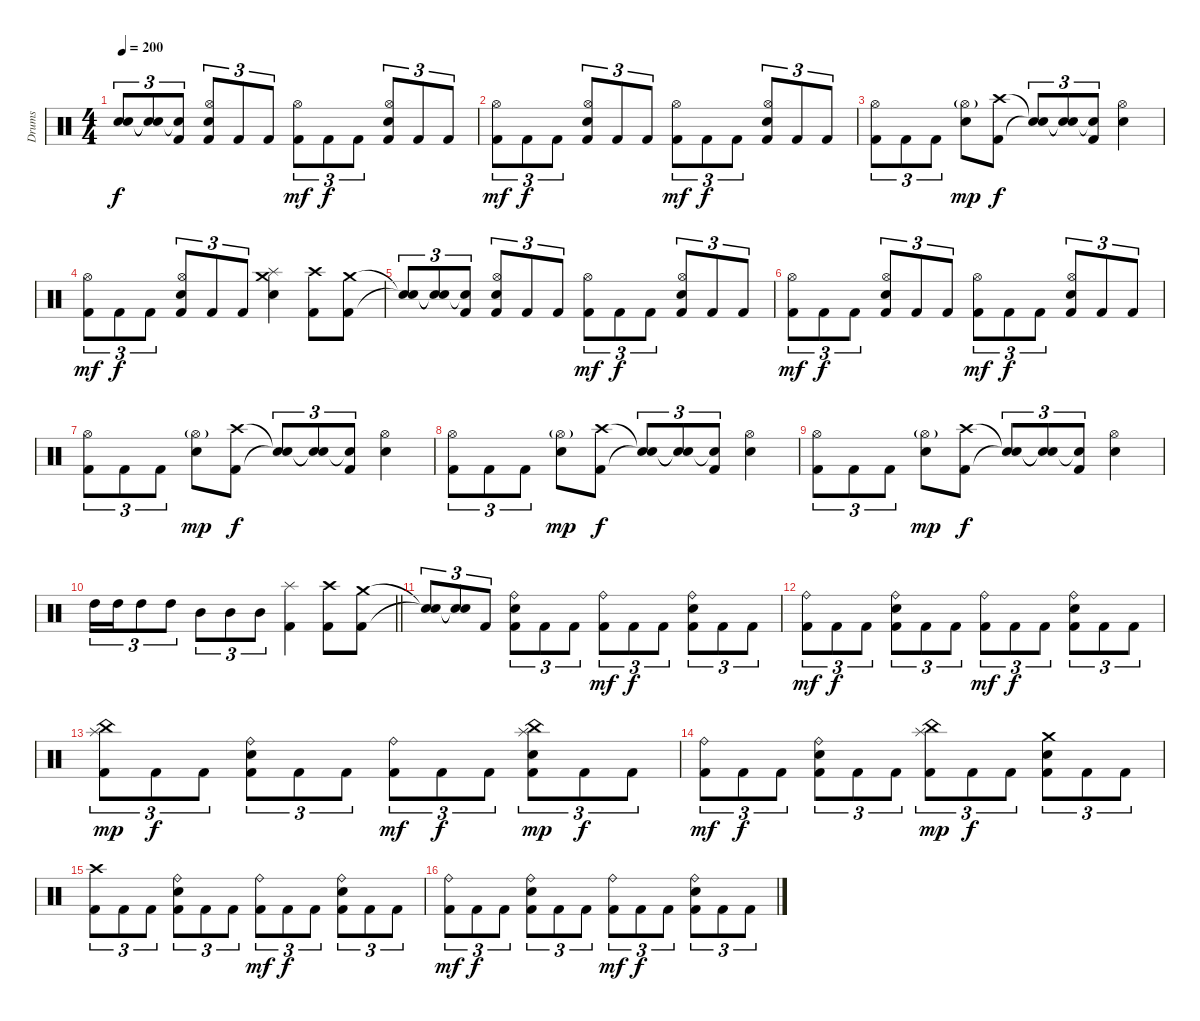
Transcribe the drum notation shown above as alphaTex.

\track ("Drums" "Drums") {instrument percussion}
\staff {score}
\articulation defaults
\ts (4 4)
\tempo 200
\clef neutral
\ks c
("Snare (hit)"{t} "Snare (hit)"{t}).8{tu (3 2) dy f} ("Snare (hit)"{t} "Snare (hit)"{t}).8{tu (3 2)} ("Snare (hit)"{t} "Kick (hit) 2").8{tu (3 2)} ("Hi-Hat (open)" "Electric Snare (hit)" "Kick (hit) 2").8{tu (3 2)} "Kick (hit) 2".8{tu (3 2)} "Kick (hit) 2".8{tu (3 2)} ("Hi-Hat (open)" "Kick (hit) 2").8{tu (3 2) dy mf} "Kick (hit) 2".8{tu (3 2) dy f} "Kick (hit) 2".8{tu (3 2)} ("Hi-Hat (open)" "Electric Snare (hit)" "Kick (hit) 2").8{tu (3 2)} "Kick (hit) 2".8{tu (3 2)} "Kick (hit) 2".8{tu (3 2)} |
("Hi-Hat (open)" "Kick (hit) 2").8{tu (3 2) dy mf} "Kick (hit) 2".8{tu (3 2) dy f} "Kick (hit) 2".8{tu (3 2)} ("Hi-Hat (open)" "Electric Snare (hit)" "Kick (hit) 2").8{tu (3 2)} "Kick (hit) 2".8{tu (3 2)} "Kick (hit) 2".8{tu (3 2)} ("Hi-Hat (open)" "Kick (hit) 2").8{tu (3 2) dy mf} "Kick (hit) 2".8{tu (3 2) dy f} "Kick (hit) 2".8{tu (3 2)} ("Hi-Hat (open)" "Electric Snare (hit)" "Kick (hit) 2").8{tu (3 2)} "Kick (hit) 2".8{tu (3 2)} "Kick (hit) 2".8{tu (3 2)} |
("Hi-Hat (open)" "Kick (hit) 2").8{tu (3 2)} "Kick (hit) 2".8{tu (3 2)} "Kick (hit) 2".8{tu (3 2)} ("Hi-Hat (open)"{g} "Electric Snare (hit)").8{dy mp} ("Crash high (hit)" "Kick (hit) 2").8{dy f} ("Snare (hit)"{t} "Snare (hit)"{t}).8{tu (3 2)} ("Snare (hit)"{t} "Snare (hit)"{t}).8{tu (3 2)} ("Snare (hit)"{t} "Kick (hit) 2").8{tu (3 2)} ("Hi-Hat (open)" "Electric Snare (hit)").4 |
("Hi-Hat (open)" "Kick (hit) 2").8{tu (3 2) dy mf} "Kick (hit) 2".8{tu (3 2) dy f} "Kick (hit) 2".8{tu (3 2)} ("Hi-Hat (open)" "Electric Snare (hit)" "Kick (hit) 2").8{tu (3 2)} "Kick (hit) 2".8{tu (3 2)} "Kick (hit) 2".8{tu (3 2)} ("Splash (hit)" "Crash medium (hit)" "Electric Snare (hit)").4 ("Crash high (hit)" "Kick (hit) 2").8 ("Crash medium (hit)" "Kick (hit) 2").8 |
("Snare (hit)"{t} "Snare (hit)"{t}).8{tu (3 2)} ("Snare (hit)"{t} "Snare (hit)"{t}).8{tu (3 2)} ("Snare (hit)"{t} "Kick (hit) 2").8{tu (3 2)} ("Hi-Hat (open)" "Electric Snare (hit)" "Kick (hit) 2").8{tu (3 2)} "Kick (hit) 2".8{tu (3 2)} "Kick (hit) 2".8{tu (3 2)} ("Hi-Hat (open)" "Kick (hit) 2").8{tu (3 2) dy mf} "Kick (hit) 2".8{tu (3 2) dy f} "Kick (hit) 2".8{tu (3 2)} ("Hi-Hat (open)" "Electric Snare (hit)" "Kick (hit) 2").8{tu (3 2)} "Kick (hit) 2".8{tu (3 2)} "Kick (hit) 2".8{tu (3 2)} |
("Hi-Hat (open)" "Kick (hit) 2").8{tu (3 2) dy mf} "Kick (hit) 2".8{tu (3 2) dy f} "Kick (hit) 2".8{tu (3 2)} ("Hi-Hat (open)" "Electric Snare (hit)" "Kick (hit) 2").8{tu (3 2)} "Kick (hit) 2".8{tu (3 2)} "Kick (hit) 2".8{tu (3 2)} ("Hi-Hat (open)" "Kick (hit) 2").8{tu (3 2) dy mf} "Kick (hit) 2".8{tu (3 2) dy f} "Kick (hit) 2".8{tu (3 2)} ("Hi-Hat (open)" "Electric Snare (hit)" "Kick (hit) 2").8{tu (3 2)} "Kick (hit) 2".8{tu (3 2)} "Kick (hit) 2".8{tu (3 2)} |
("Hi-Hat (open)" "Kick (hit) 2").8{tu (3 2)} "Kick (hit) 2".8{tu (3 2)} "Kick (hit) 2".8{tu (3 2)} ("Hi-Hat (open)"{g} "Electric Snare (hit)").8{dy mp} ("Crash high (hit)" "Kick (hit) 2").8{dy f} ("Snare (hit)"{t} "Snare (hit)"{t}).8{tu (3 2)} ("Snare (hit)"{t} "Snare (hit)"{t}).8{tu (3 2)} ("Snare (hit)"{t} "Kick (hit) 2").8{tu (3 2)} ("Hi-Hat (open)" "Electric Snare (hit)").4 |
("Hi-Hat (open)" "Kick (hit) 2").8{tu (3 2)} "Kick (hit) 2".8{tu (3 2)} "Kick (hit) 2".8{tu (3 2)} ("Hi-Hat (open)"{g} "Electric Snare (hit)").8{dy mp} ("Crash high (hit)" "Kick (hit) 2").8{dy f} ("Snare (hit)"{t} "Snare (hit)"{t}).8{tu (3 2)} ("Snare (hit)"{t} "Snare (hit)"{t}).8{tu (3 2)} ("Snare (hit)"{t} "Kick (hit) 2").8{tu (3 2)} ("Hi-Hat (open)" "Electric Snare (hit)").4 |
("Hi-Hat (open)" "Kick (hit) 2").8{tu (3 2)} "Kick (hit) 2".8{tu (3 2)} "Kick (hit) 2".8{tu (3 2)} ("Hi-Hat (open)"{g} "Electric Snare (hit)").8{dy mp} ("Crash high (hit)" "Kick (hit) 2").8{dy f} ("Snare (hit)"{t} "Snare (hit)"{t}).8{tu (3 2)} ("Snare (hit)"{t} "Snare (hit)"{t}).8{tu (3 2)} ("Snare (hit)"{t} "Kick (hit) 2").8{tu (3 2)} ("Hi-Hat (open)" "Electric Snare (hit)").4 |
\barLineRight lightlight "High Tom (hit)".16{tu (3 2)} "High Tom (hit)".16{tu (3 2)} "High Tom (hit)".8{tu (3 2)} "High Tom (hit)".8{tu (3 2)} "Mid Tom (hit)".8{tu (3 2)} "Mid Tom (hit)".8{tu (3 2)} "Mid Tom (hit)".8{tu (3 2)}
("Splash (hit)" "Kick (hit) 2").4 ("Crash high (hit)" "Kick (hit) 2").8 ("Crash medium (hit)" "Kick (hit) 2").8 |
("Snare (hit)"{t} "Snare (hit)"{t}).8{tu (3 2)} ("Snare (hit)"{t} "Snare (hit)"{t}).8{tu (3 2)} "Kick (hit) 2".8{tu (3 2)} ("Ride (bell)" "Electric Snare (hit)" "Kick (hit) 2").8{tu (3 2)} "Kick (hit) 2".8{tu (3 2)} "Kick (hit) 2".8{tu (3 2)} ("Ride (bell)" "Kick (hit) 2").8{tu (3 2) dy mf} "Kick (hit) 2".8{tu (3 2) dy f} "Kick (hit) 2".8{tu (3 2)} ("Ride (bell)" "Electric Snare (hit)" "Kick (hit) 2").8{tu (3 2)} "Kick (hit) 2".8{tu (3 2)} "Kick (hit) 2".8{tu (3 2)} |
("Ride (bell)" "Kick (hit) 2").8{tu (3 2) dy mf} "Kick (hit) 2".8{tu (3 2) dy f} "Kick (hit) 2".8{tu (3 2)} ("Ride (bell)" "Electric Snare (hit)" "Kick (hit) 2").8{tu (3 2)} "Kick (hit) 2".8{tu (3 2)} "Kick (hit) 2".8{tu (3 2)} ("Ride (bell)" "Kick (hit) 2").8{tu (3 2) dy mf} "Kick (hit) 2".8{tu (3 2) dy f} "Kick (hit) 2".8{tu (3 2)} ("Ride (bell)" "Electric Snare (hit)" "Kick (hit) 2").8{tu (3 2)} "Kick (hit) 2".8{tu (3 2)} "Kick (hit) 2".8{tu (3 2)} |
("China (hit)" "Splash (hit)" "Kick (hit) 2").8{tu (3 2) dy mp} "Kick (hit) 2".8{tu (3 2) dy f} "Kick (hit) 2".8{tu (3 2)} ("Ride (bell)" "Electric Snare (hit)" "Kick (hit) 2").8{tu (3 2)} "Kick (hit) 2".8{tu (3 2)} "Kick (hit) 2".8{tu (3 2)} ("Ride (bell)" "Kick (hit) 2").8{tu (3 2) dy mf} "Kick (hit) 2".8{tu (3 2) dy f} "Kick (hit) 2".8{tu (3 2)} ("China (hit)" "Splash (hit)" "Electric Snare (hit)" "Kick (hit) 2").8{tu (3 2) dy mp} "Kick (hit) 2".8{tu (3 2) dy f} "Kick (hit) 2".8{tu (3 2)} |
("Ride (bell)" "Kick (hit) 2").8{tu (3 2) dy mf} "Kick (hit) 2".8{tu (3 2) dy f} "Kick (hit) 2".8{tu (3 2)} ("Ride (bell)" "Electric Snare (hit)" "Kick (hit) 2").8{tu (3 2)} "Kick (hit) 2".8{tu (3 2)} "Kick (hit) 2".8{tu (3 2)} ("China (hit)" "Splash (hit)" "Kick (hit) 2").8{tu (3 2) dy mp} "Kick (hit) 2".8{tu (3 2) dy f} "Kick (hit) 2".8{tu (3 2)} ("Crash medium (hit)" "Electric Snare (hit)" "Kick (hit) 2").8{tu (3 2)} "Kick (hit) 2".8{tu (3 2)} "Kick (hit) 2".8{tu (3 2)} |
("Crash high (hit)" "Kick (hit) 2").8{tu (3 2)} "Kick (hit) 2".8{tu (3 2)} "Kick (hit) 2".8{tu (3 2)} ("Ride (bell)" "Electric Snare (hit)" "Kick (hit) 2").8{tu (3 2)} "Kick (hit) 2".8{tu (3 2)} "Kick (hit) 2".8{tu (3 2)} ("Ride (bell)" "Kick (hit) 2").8{tu (3 2) dy mf} "Kick (hit) 2".8{tu (3 2) dy f} "Kick (hit) 2".8{tu (3 2)} ("Ride (bell)" "Electric Snare (hit)" "Kick (hit) 2").8{tu (3 2)} "Kick (hit) 2".8{tu (3 2)} "Kick (hit) 2".8{tu (3 2)} |
("Ride (bell)" "Kick (hit) 2").8{tu (3 2) dy mf} "Kick (hit) 2".8{tu (3 2) dy f} "Kick (hit) 2".8{tu (3 2)} ("Ride (bell)" "Electric Snare (hit)" "Kick (hit) 2").8{tu (3 2)} "Kick (hit) 2".8{tu (3 2)} "Kick (hit) 2".8{tu (3 2)} ("Ride (bell)" "Kick (hit) 2").8{tu (3 2) dy mf} "Kick (hit) 2".8{tu (3 2) dy f} "Kick (hit) 2".8{tu (3 2)} ("Ride (bell)" "Electric Snare (hit)" "Kick (hit) 2").8{tu (3 2)} "Kick (hit) 2".8{tu (3 2)} "Kick (hit) 2".8{tu (3 2)}
